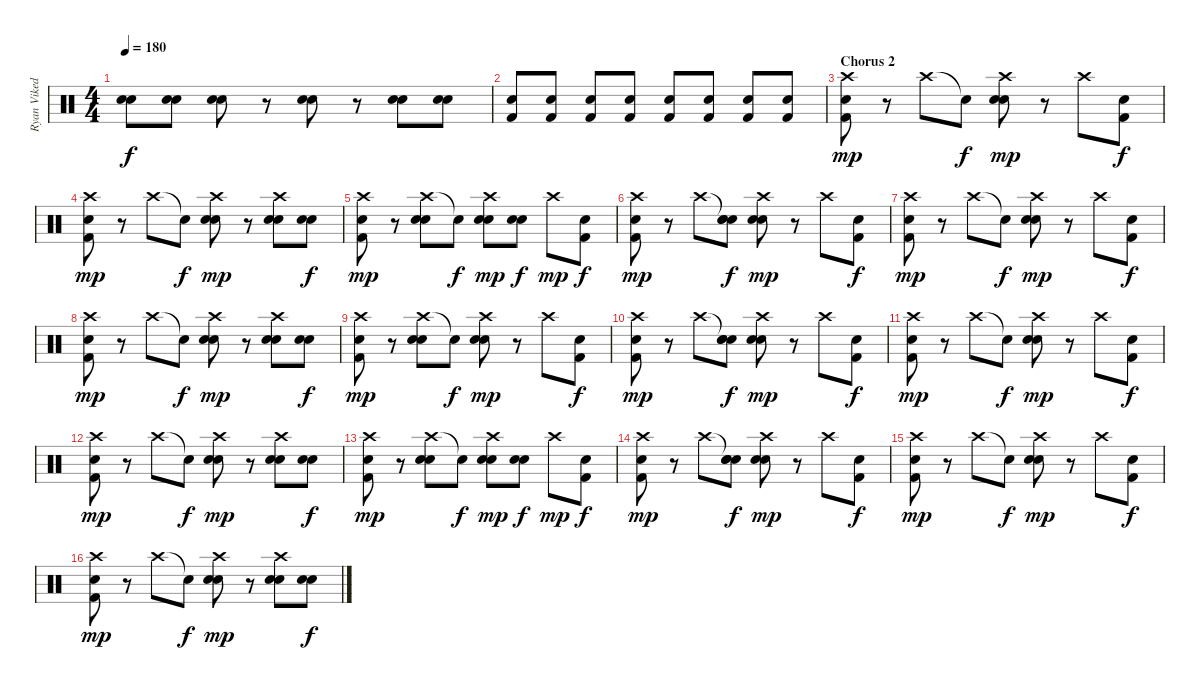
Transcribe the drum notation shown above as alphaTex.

\track ("Ryan Vikedal(drums)" "Ryan Viked") {instrument percussion}
\staff {score}
\articulation defaults
\ts (4 4)
\tempo 180
\clef neutral
\ks c
("Snare (hit) 2" "Electric Snare (hit)").8{dy f} ("Snare (hit) 2" "Electric Snare (hit)").8 ("Electric Snare (hit)" "Electric Snare (hit)").8 r.8 ("Electric Snare (hit)" "Snare (hit) 2").8 r.8 ("Electric Snare (hit)" "Electric Snare (hit)").8 ("Electric Snare (hit)" "Electric Snare (hit)").8 |
("Kick (hit) 2" "Electric Snare (hit)").8 ("Kick (hit) 2" "Electric Snare (hit)").8 ("Kick (hit) 2" "Electric Snare (hit)").8 ("Kick (hit) 2" "Electric Snare (hit)").8 ("Kick (hit) 2" "Electric Snare (hit)").8 ("Kick (hit) 2" "Electric Snare (hit)").8 ("Kick (hit) 2" "Electric Snare (hit)").8 ("Kick (hit) 2" "Electric Snare (hit)").8 |
\section ("" "Chorus 2")
("Crash high (hit)" "Electric Snare (hit)" "Kick (hit) 2").8{dy mp} r.8 "Crash high (hit)".8 "Snare (hit)"{t}.8{dy f} ("Crash high (hit)" "Electric Snare (hit)" "Electric Snare (hit)").8{dy mp} r.8 "Crash high (hit)".8 ("Kick (hit) 2" "Electric Snare (hit)").8{dy f} |
("Crash high (hit)" "Electric Snare (hit)" "Kick (hit) 2").8{dy mp} r.8 "Crash high (hit)".8 "Snare (hit)"{t}.8{dy f} ("Crash high (hit)" "Electric Snare (hit)" "Electric Snare (hit)").8{dy mp} r.8 ("Crash high (hit)" "Electric Snare (hit)" "Electric Snare (hit)").8 ("Electric Snare (hit)" "Electric Snare (hit)").8{dy f} |
("Crash high (hit)" "Electric Snare (hit)" "Kick (hit) 2").8{dy mp} r.8 ("Crash high (hit)" "Electric Snare (hit)" "Electric Snare (hit)").8 "Snare (hit)"{t}.8{dy f} ("Crash high (hit)" "Electric Snare (hit)" "Electric Snare (hit)").8{dy mp} ("Electric Snare (hit)" "Electric Snare (hit)").8{dy f} "Crash high (hit)".8{dy mp} ("Kick (hit) 2" "Electric Snare (hit)").8{dy f} |
("Crash high (hit)" "Electric Snare (hit)" "Kick (hit) 2").8{dy mp} r.8 "Crash high (hit)".8 ("Snare (hit)"{t} "Electric Snare (hit)" "Electric Snare (hit)").8{dy f} ("Crash high (hit)" "Electric Snare (hit)" "Electric Snare (hit)").8{dy mp} r.8 "Crash high (hit)".8 ("Kick (hit) 2" "Electric Snare (hit)").8{dy f} |
("Crash high (hit)" "Electric Snare (hit)" "Kick (hit) 2").8{dy mp} r.8 "Crash high (hit)".8 "Snare (hit)"{t}.8{dy f} ("Crash high (hit)" "Electric Snare (hit)" "Electric Snare (hit)").8{dy mp} r.8 "Crash high (hit)".8 ("Kick (hit) 2" "Electric Snare (hit)").8{dy f} |
("Crash high (hit)" "Electric Snare (hit)" "Kick (hit) 2").8{dy mp} r.8 "Crash high (hit)".8 "Snare (hit)"{t}.8{dy f} ("Crash high (hit)" "Electric Snare (hit)" "Electric Snare (hit)").8{dy mp} r.8 ("Crash high (hit)" "Electric Snare (hit)" "Electric Snare (hit)").8 ("Electric Snare (hit)" "Electric Snare (hit)").8{dy f} |
("Crash high (hit)" "Electric Snare (hit)" "Kick (hit) 2").8{dy mp} r.8 ("Crash high (hit)" "Electric Snare (hit)" "Electric Snare (hit)").8 "Snare (hit)"{t}.8{dy f} ("Crash high (hit)" "Electric Snare (hit)" "Electric Snare (hit)").8{dy mp} r.8 "Crash high (hit)".8 ("Kick (hit) 2" "Electric Snare (hit)").8{dy f} |
("Crash high (hit)" "Electric Snare (hit)" "Kick (hit) 2").8{dy mp} r.8 "Crash high (hit)".8 ("Snare (hit)"{t} "Electric Snare (hit)" "Electric Snare (hit)").8{dy f} ("Crash high (hit)" "Electric Snare (hit)" "Electric Snare (hit)").8{dy mp} r.8 "Crash high (hit)".8 ("Kick (hit) 2" "Electric Snare (hit)").8{dy f} |
("Crash high (hit)" "Electric Snare (hit)" "Kick (hit) 2").8{dy mp} r.8 "Crash high (hit)".8 "Snare (hit)"{t}.8{dy f} ("Crash high (hit)" "Electric Snare (hit)" "Electric Snare (hit)").8{dy mp} r.8 "Crash high (hit)".8 ("Kick (hit) 2" "Electric Snare (hit)").8{dy f} |
("Crash high (hit)" "Electric Snare (hit)" "Kick (hit) 2").8{dy mp} r.8 "Crash high (hit)".8 "Snare (hit)"{t}.8{dy f} ("Crash high (hit)" "Electric Snare (hit)" "Electric Snare (hit)").8{dy mp} r.8 ("Crash high (hit)" "Electric Snare (hit)" "Electric Snare (hit)").8 ("Electric Snare (hit)" "Electric Snare (hit)").8{dy f} |
("Crash high (hit)" "Electric Snare (hit)" "Kick (hit) 2").8{dy mp} r.8 ("Crash high (hit)" "Electric Snare (hit)" "Electric Snare (hit)").8 "Snare (hit)"{t}.8{dy f} ("Crash high (hit)" "Electric Snare (hit)" "Electric Snare (hit)").8{dy mp} ("Electric Snare (hit)" "Electric Snare (hit)").8{dy f} "Crash high (hit)".8{dy mp} ("Kick (hit) 2" "Electric Snare (hit)").8{dy f} |
("Crash high (hit)" "Electric Snare (hit)" "Kick (hit) 2").8{dy mp} r.8 "Crash high (hit)".8 ("Snare (hit)"{t} "Electric Snare (hit)" "Electric Snare (hit)").8{dy f} ("Crash high (hit)" "Electric Snare (hit)" "Electric Snare (hit)").8{dy mp} r.8 "Crash high (hit)".8 ("Kick (hit) 2" "Electric Snare (hit)").8{dy f} |
("Crash high (hit)" "Electric Snare (hit)" "Kick (hit) 2").8{dy mp} r.8 "Crash high (hit)".8 "Snare (hit)"{t}.8{dy f} ("Crash high (hit)" "Electric Snare (hit)" "Electric Snare (hit)").8{dy mp} r.8 "Crash high (hit)".8 ("Kick (hit) 2" "Electric Snare (hit)").8{dy f} |
("Crash high (hit)" "Electric Snare (hit)" "Kick (hit) 2").8{dy mp} r.8 "Crash high (hit)".8 "Snare (hit)"{t}.8{dy f} ("Crash high (hit)" "Electric Snare (hit)" "Electric Snare (hit)").8{dy mp} r.8 ("Crash high (hit)" "Electric Snare (hit)" "Electric Snare (hit)").8 ("Electric Snare (hit)" "Electric Snare (hit)").8{dy f}
